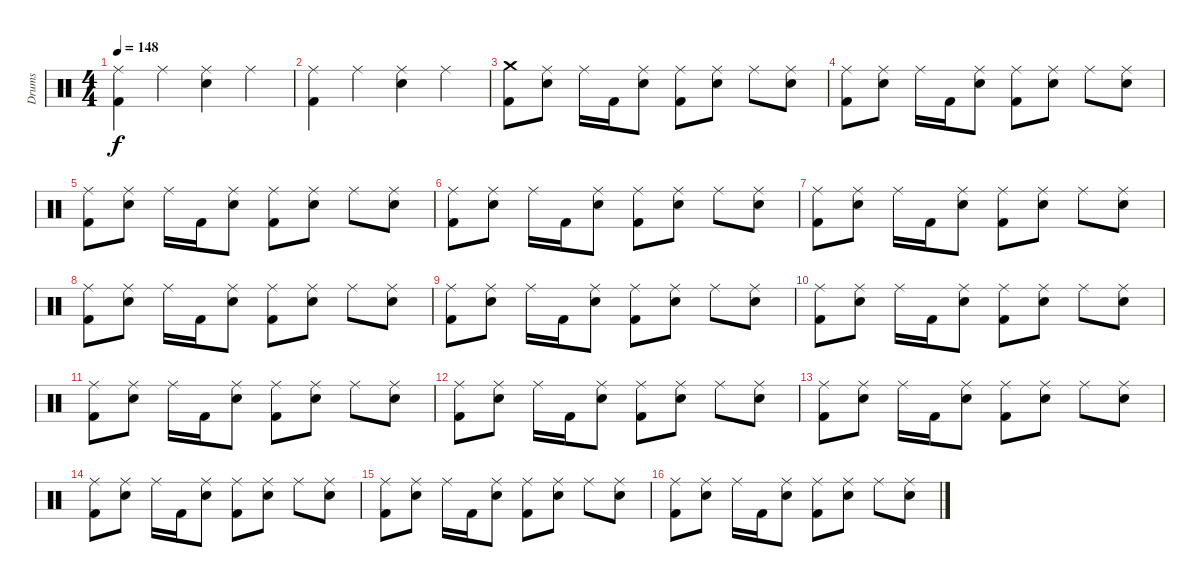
\track ("Drums" "Drums") {instrument percussion}
\staff
\articulation defaults
\ts (4 4)
\tempo 148
\clef neutral
\ks c
("Ride (middle)" "Kick (hit) 2").4{dy f} "Ride (middle)".4 ("Ride (middle)" "Electric Snare (hit)").4 "Ride (middle)".4 |
("Ride (middle)" "Kick (hit) 2").4 "Ride (middle)".4 ("Ride (middle)" "Electric Snare (hit)").4 "Ride (middle)".4 |
("Crash medium (hit)" "Kick (hit) 2").8 ("Ride (middle)" "Electric Snare (hit)").8 "Ride (middle)".16 "Kick (hit) 2".16 ("Ride (middle)" "Electric Snare (hit)").8 ("Ride (middle)" "Kick (hit) 2").8 ("Ride (middle)" "Electric Snare (hit)").8 "Ride (middle)".8 ("Ride (middle)" "Electric Snare (hit)").8 |
("Ride (middle)" "Kick (hit) 2").8 ("Ride (middle)" "Electric Snare (hit)").8 "Ride (middle)".16 "Kick (hit) 2".16 ("Ride (middle)" "Electric Snare (hit)").8 ("Ride (middle)" "Kick (hit) 2").8 ("Ride (middle)" "Electric Snare (hit)").8 "Ride (middle)".8 ("Ride (middle)" "Electric Snare (hit)").8 |
("Ride (middle)" "Kick (hit) 2").8 ("Ride (middle)" "Electric Snare (hit)").8 "Ride (middle)".16 "Kick (hit) 2".16 ("Ride (middle)" "Electric Snare (hit)").8 ("Ride (middle)" "Kick (hit) 2").8 ("Ride (middle)" "Electric Snare (hit)").8 "Ride (middle)".8 ("Ride (middle)" "Electric Snare (hit)").8 |
("Ride (middle)" "Kick (hit) 2").8 ("Ride (middle)" "Electric Snare (hit)").8 "Ride (middle)".16 "Kick (hit) 2".16 ("Ride (middle)" "Electric Snare (hit)").8 ("Ride (middle)" "Kick (hit) 2").8 ("Ride (middle)" "Electric Snare (hit)").8 "Ride (middle)".8 ("Ride (middle)" "Electric Snare (hit)").8 |
("Ride (middle)" "Kick (hit) 2").8 ("Ride (middle)" "Electric Snare (hit)").8 "Ride (middle)".16 "Kick (hit) 2".16 ("Ride (middle)" "Electric Snare (hit)").8 ("Ride (middle)" "Kick (hit) 2").8 ("Ride (middle)" "Electric Snare (hit)").8 "Ride (middle)".8 ("Ride (middle)" "Electric Snare (hit)").8 |
("Ride (middle)" "Kick (hit) 2").8 ("Ride (middle)" "Electric Snare (hit)").8 "Ride (middle)".16 "Kick (hit) 2".16 ("Ride (middle)" "Electric Snare (hit)").8 ("Ride (middle)" "Kick (hit) 2").8 ("Ride (middle)" "Electric Snare (hit)").8 "Ride (middle)".8 ("Ride (middle)" "Electric Snare (hit)").8 |
("Ride (middle)" "Kick (hit) 2").8 ("Ride (middle)" "Electric Snare (hit)").8 "Ride (middle)".16 "Kick (hit) 2".16 ("Ride (middle)" "Electric Snare (hit)").8 ("Ride (middle)" "Kick (hit) 2").8 ("Ride (middle)" "Electric Snare (hit)").8 "Ride (middle)".8 ("Ride (middle)" "Electric Snare (hit)").8 |
("Ride (middle)" "Kick (hit) 2").8 ("Ride (middle)" "Electric Snare (hit)").8 "Ride (middle)".16 "Kick (hit) 2".16 ("Ride (middle)" "Electric Snare (hit)").8 ("Ride (middle)" "Kick (hit) 2").8 ("Ride (middle)" "Electric Snare (hit)").8 "Ride (middle)".8 ("Ride (middle)" "Electric Snare (hit)").8 |
("Ride (middle)" "Kick (hit) 2").8 ("Ride (middle)" "Electric Snare (hit)").8 "Ride (middle)".16 "Kick (hit) 2".16 ("Ride (middle)" "Electric Snare (hit)").8 ("Ride (middle)" "Kick (hit) 2").8 ("Ride (middle)" "Electric Snare (hit)").8 "Ride (middle)".8 ("Ride (middle)" "Electric Snare (hit)").8 |
("Ride (middle)" "Kick (hit) 2").8 ("Ride (middle)" "Electric Snare (hit)").8 "Ride (middle)".16 "Kick (hit) 2".16 ("Ride (middle)" "Electric Snare (hit)").8 ("Ride (middle)" "Kick (hit) 2").8 ("Ride (middle)" "Electric Snare (hit)").8 "Ride (middle)".8 ("Ride (middle)" "Electric Snare (hit)").8 |
("Ride (middle)" "Kick (hit) 2").8 ("Ride (middle)" "Electric Snare (hit)").8 "Ride (middle)".16 "Kick (hit) 2".16 ("Ride (middle)" "Electric Snare (hit)").8 ("Ride (middle)" "Kick (hit) 2").8 ("Ride (middle)" "Electric Snare (hit)").8 "Ride (middle)".8 ("Ride (middle)" "Electric Snare (hit)").8 |
("Ride (middle)" "Kick (hit) 2").8 ("Ride (middle)" "Electric Snare (hit)").8 "Ride (middle)".16 "Kick (hit) 2".16 ("Ride (middle)" "Electric Snare (hit)").8 ("Ride (middle)" "Kick (hit) 2").8 ("Ride (middle)" "Electric Snare (hit)").8 "Ride (middle)".8 ("Ride (middle)" "Electric Snare (hit)").8 |
("Ride (middle)" "Kick (hit) 2").8 ("Ride (middle)" "Electric Snare (hit)").8 "Ride (middle)".16 "Kick (hit) 2".16 ("Ride (middle)" "Electric Snare (hit)").8 ("Ride (middle)" "Kick (hit) 2").8 ("Ride (middle)" "Electric Snare (hit)").8 "Ride (middle)".8 ("Ride (middle)" "Electric Snare (hit)").8 |
("Ride (middle)" "Kick (hit) 2").8 ("Ride (middle)" "Electric Snare (hit)").8 "Ride (middle)".16 "Kick (hit) 2".16 ("Ride (middle)" "Electric Snare (hit)").8 ("Ride (middle)" "Kick (hit) 2").8 ("Ride (middle)" "Electric Snare (hit)").8 "Ride (middle)".8 ("Ride (middle)" "Electric Snare (hit)").8
